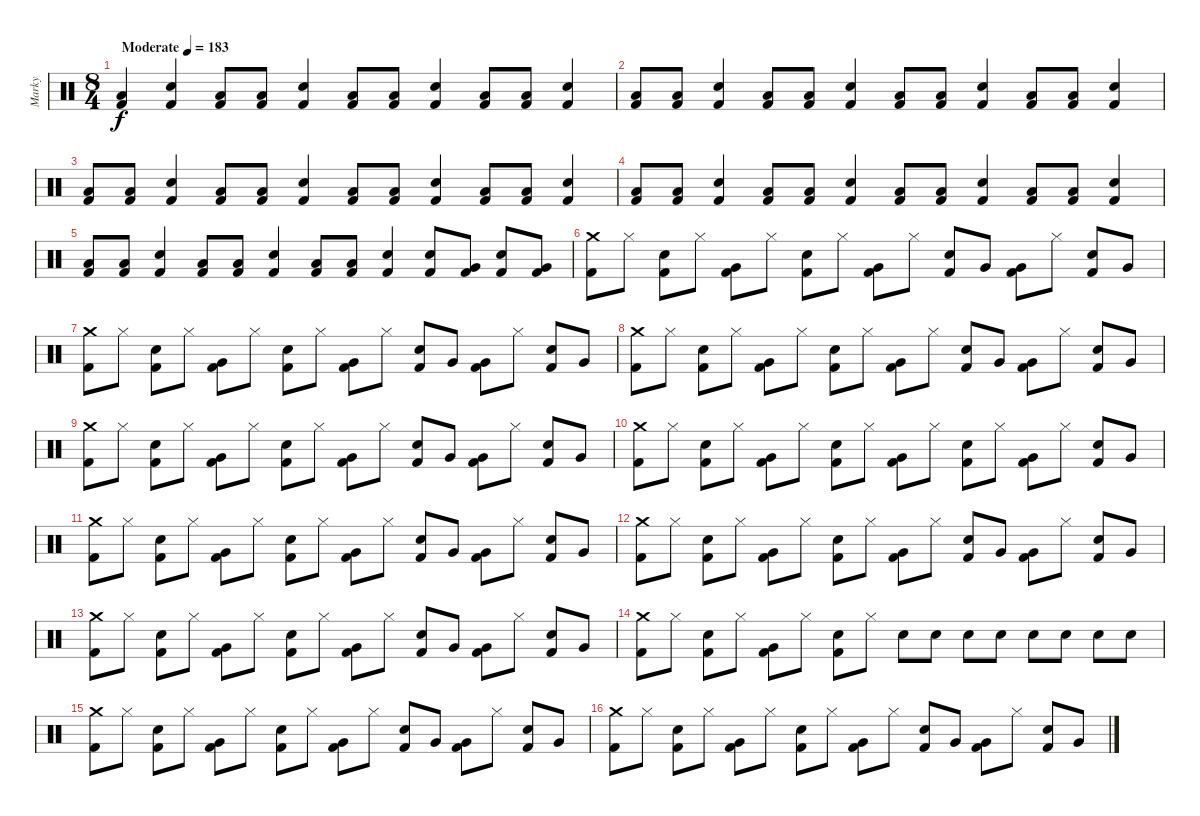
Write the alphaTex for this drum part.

\track ("Marky" "Marky") {instrument percussion}
\staff {score}
\articulation defaults
\ts (8 4)
\tempo (183 "Moderate")
\clef neutral
\ks c
("Kick (hit) 2" "Low Floor Tom (hit)").4{dy f} ("Kick (hit) 2" "Snare (hit) 2").4 ("Kick (hit) 2" "Low Floor Tom (hit)").8 ("Kick (hit) 2" "Low Floor Tom (hit)").8 ("Kick (hit) 2" "Snare (hit) 2").4 ("Kick (hit) 2" "Low Floor Tom (hit)").8 ("Kick (hit) 2" "Low Floor Tom (hit)").8 ("Kick (hit) 2" "Snare (hit) 2").4 ("Kick (hit) 2" "Low Floor Tom (hit)").8 ("Kick (hit) 2" "Low Floor Tom (hit)").8 ("Kick (hit) 2" "Snare (hit) 2").4 |
("Kick (hit) 2" "Low Floor Tom (hit)").8 ("Kick (hit) 2" "Low Floor Tom (hit)").8 ("Kick (hit) 2" "Snare (hit) 2").4 ("Kick (hit) 2" "Low Floor Tom (hit)").8 ("Kick (hit) 2" "Low Floor Tom (hit)").8 ("Kick (hit) 2" "Snare (hit) 2").4 ("Kick (hit) 2" "Low Floor Tom (hit)").8 ("Kick (hit) 2" "Low Floor Tom (hit)").8 ("Kick (hit) 2" "Snare (hit) 2").4 ("Kick (hit) 2" "Low Floor Tom (hit)").8 ("Kick (hit) 2" "Low Floor Tom (hit)").8 ("Kick (hit) 2" "Snare (hit) 2").4 |
("Kick (hit) 2" "Low Floor Tom (hit)").8 ("Kick (hit) 2" "Low Floor Tom (hit)").8 ("Kick (hit) 2" "Snare (hit) 2").4 ("Kick (hit) 2" "Low Floor Tom (hit)").8 ("Kick (hit) 2" "Low Floor Tom (hit)").8 ("Kick (hit) 2" "Snare (hit) 2").4 ("Kick (hit) 2" "Low Floor Tom (hit)").8 ("Kick (hit) 2" "Low Floor Tom (hit)").8 ("Kick (hit) 2" "Snare (hit) 2").4 ("Kick (hit) 2" "Low Floor Tom (hit)").8 ("Kick (hit) 2" "Low Floor Tom (hit)").8 ("Kick (hit) 2" "Snare (hit) 2").4 |
("Kick (hit) 2" "Low Floor Tom (hit)").8 ("Kick (hit) 2" "Low Floor Tom (hit)").8 ("Kick (hit) 2" "Snare (hit) 2").4 ("Kick (hit) 2" "Low Floor Tom (hit)").8 ("Kick (hit) 2" "Low Floor Tom (hit)").8 ("Kick (hit) 2" "Snare (hit) 2").4 ("Kick (hit) 2" "Low Floor Tom (hit)").8 ("Kick (hit) 2" "Low Floor Tom (hit)").8 ("Kick (hit) 2" "Snare (hit) 2").4 ("Kick (hit) 2" "Low Floor Tom (hit)").8 ("Kick (hit) 2" "Low Floor Tom (hit)").8 ("Kick (hit) 2" "Snare (hit) 2").4 |
("Kick (hit) 2" "Low Floor Tom (hit)").8 ("Kick (hit) 2" "Low Floor Tom (hit)").8 ("Kick (hit) 2" "Snare (hit) 2").4 ("Kick (hit) 2" "Low Floor Tom (hit)").8 ("Kick (hit) 2" "Low Floor Tom (hit)").8 ("Kick (hit) 2" "Snare (hit) 2").4 ("Kick (hit) 2" "Low Floor Tom (hit)").8 ("Kick (hit) 2" "Low Floor Tom (hit)").8 ("Kick (hit) 2" "Snare (hit) 2").4 ("Kick (hit) 2" "Snare (hit) 2").8 ("Kick (hit) 2" "Very Low Tom (hit)").8 ("Kick (hit) 2" "Snare (hit) 2").8 ("Kick (hit) 2" "Very Low Tom (hit)").8 |
("Kick (hit) 2" "Crash medium (hit)").8 "Hi-Hat (closed)".8 ("Kick (hit) 2" "Snare (hit) 2").8 "Hi-Hat (closed)".8 ("Kick (hit) 2" "Very Low Tom (hit)").8 "Hi-Hat (closed)".8 ("Kick (hit) 2" "Snare (hit) 2").8 "Hi-Hat (closed)".8 ("Kick (hit) 2" "Very Low Tom (hit)").8 "Hi-Hat (closed)".8 ("Kick (hit) 2" "Snare (hit) 2").8 "Very Low Tom (hit)".8 ("Kick (hit) 2" "Very Low Tom (hit)").8 "Hi-Hat (closed)".8 ("Kick (hit) 2" "Snare (hit) 2").8 "Very Low Tom (hit)".8 |
("Kick (hit) 2" "Crash medium (hit)").8 "Hi-Hat (closed)".8 ("Kick (hit) 2" "Snare (hit) 2").8 "Hi-Hat (closed)".8 ("Kick (hit) 2" "Very Low Tom (hit)").8 "Hi-Hat (closed)".8 ("Kick (hit) 2" "Snare (hit) 2").8 "Hi-Hat (closed)".8 ("Kick (hit) 2" "Very Low Tom (hit)").8 "Hi-Hat (closed)".8 ("Kick (hit) 2" "Snare (hit) 2").8 "Very Low Tom (hit)".8 ("Kick (hit) 2" "Very Low Tom (hit)").8 "Hi-Hat (closed)".8 ("Kick (hit) 2" "Snare (hit) 2").8 "Very Low Tom (hit)".8 |
("Kick (hit) 2" "Crash medium (hit)").8 "Hi-Hat (closed)".8 ("Kick (hit) 2" "Snare (hit) 2").8 "Hi-Hat (closed)".8 ("Kick (hit) 2" "Very Low Tom (hit)").8 "Hi-Hat (closed)".8 ("Kick (hit) 2" "Snare (hit) 2").8 "Hi-Hat (closed)".8 ("Kick (hit) 2" "Very Low Tom (hit)").8 "Hi-Hat (closed)".8 ("Kick (hit) 2" "Snare (hit) 2").8 "Very Low Tom (hit)".8 ("Kick (hit) 2" "Very Low Tom (hit)").8 "Hi-Hat (closed)".8 ("Kick (hit) 2" "Snare (hit) 2").8 "Very Low Tom (hit)".8 |
("Kick (hit) 2" "Crash medium (hit)").8 "Hi-Hat (closed)".8 ("Kick (hit) 2" "Snare (hit) 2").8 "Hi-Hat (closed)".8 ("Kick (hit) 2" "Very Low Tom (hit)").8 "Hi-Hat (closed)".8 ("Kick (hit) 2" "Snare (hit) 2").8 "Hi-Hat (closed)".8 ("Kick (hit) 2" "Very Low Tom (hit)").8 "Hi-Hat (closed)".8 ("Kick (hit) 2" "Snare (hit) 2").8 "Very Low Tom (hit)".8 ("Kick (hit) 2" "Very Low Tom (hit)").8 "Hi-Hat (closed)".8 ("Kick (hit) 2" "Snare (hit) 2").8 "Very Low Tom (hit)".8 |
("Kick (hit) 2" "Crash medium (hit)").8 "Hi-Hat (closed)".8 ("Kick (hit) 2" "Snare (hit) 2").8 "Hi-Hat (closed)".8 ("Kick (hit) 2" "Very Low Tom (hit)").8 "Hi-Hat (closed)".8 ("Kick (hit) 2" "Snare (hit) 2").8 "Hi-Hat (closed)".8 ("Kick (hit) 2" "Very Low Tom (hit)").8 "Hi-Hat (closed)".8 ("Kick (hit) 2" "Snare (hit) 2").8 "Hi-Hat (closed)".8 ("Kick (hit) 2" "Very Low Tom (hit)").8 "Hi-Hat (closed)".8 ("Kick (hit) 2" "Snare (hit) 2").8 "Very Low Tom (hit)".8 |
("Kick (hit) 2" "Crash medium (hit)").8 "Hi-Hat (closed)".8 ("Kick (hit) 2" "Snare (hit) 2").8 "Hi-Hat (closed)".8 ("Kick (hit) 2" "Very Low Tom (hit)").8 "Hi-Hat (closed)".8 ("Kick (hit) 2" "Snare (hit) 2").8 "Hi-Hat (closed)".8 ("Kick (hit) 2" "Very Low Tom (hit)").8 "Hi-Hat (closed)".8 ("Kick (hit) 2" "Snare (hit) 2").8 "Very Low Tom (hit)".8 ("Kick (hit) 2" "Very Low Tom (hit)").8 "Hi-Hat (closed)".8 ("Kick (hit) 2" "Snare (hit) 2").8 "Very Low Tom (hit)".8 |
("Kick (hit) 2" "Crash medium (hit)").8 "Hi-Hat (closed)".8 ("Kick (hit) 2" "Snare (hit) 2").8 "Hi-Hat (closed)".8 ("Kick (hit) 2" "Very Low Tom (hit)").8 "Hi-Hat (closed)".8 ("Kick (hit) 2" "Snare (hit) 2").8 "Hi-Hat (closed)".8 ("Kick (hit) 2" "Very Low Tom (hit)").8 "Hi-Hat (closed)".8 ("Kick (hit) 2" "Snare (hit) 2").8 "Very Low Tom (hit)".8 ("Kick (hit) 2" "Very Low Tom (hit)").8 "Hi-Hat (closed)".8 ("Kick (hit) 2" "Snare (hit) 2").8 "Very Low Tom (hit)".8 |
("Kick (hit) 2" "Crash medium (hit)").8 "Hi-Hat (closed)".8 ("Kick (hit) 2" "Snare (hit) 2").8 "Hi-Hat (closed)".8 ("Kick (hit) 2" "Very Low Tom (hit)").8 "Hi-Hat (closed)".8 ("Kick (hit) 2" "Snare (hit) 2").8 "Hi-Hat (closed)".8 ("Kick (hit) 2" "Very Low Tom (hit)").8 "Hi-Hat (closed)".8 ("Kick (hit) 2" "Snare (hit) 2").8 "Very Low Tom (hit)".8 ("Kick (hit) 2" "Very Low Tom (hit)").8 "Hi-Hat (closed)".8 ("Kick (hit) 2" "Snare (hit) 2").8 "Very Low Tom (hit)".8 |
("Kick (hit) 2" "Crash medium (hit)").8 "Hi-Hat (closed)".8 ("Kick (hit) 2" "Snare (hit) 2").8 "Hi-Hat (closed)".8 ("Kick (hit) 2" "Very Low Tom (hit)").8 "Hi-Hat (closed)".8 ("Kick (hit) 2" "Snare (hit) 2").8 "Hi-Hat (closed)".8 "Snare (hit) 2".8 "Snare (hit) 2".8 "Snare (hit) 2".8 "Snare (hit) 2".8 "Snare (hit) 2".8 "Snare (hit) 2".8 "Snare (hit) 2".8 "Snare (hit) 2".8 |
("Kick (hit) 2" "Crash medium (hit)").8 "Hi-Hat (closed)".8 ("Kick (hit) 2" "Snare (hit) 2").8 "Hi-Hat (closed)".8 ("Kick (hit) 2" "Very Low Tom (hit)").8 "Hi-Hat (closed)".8 ("Kick (hit) 2" "Snare (hit) 2").8 "Hi-Hat (closed)".8 ("Kick (hit) 2" "Very Low Tom (hit)").8 "Hi-Hat (closed)".8 ("Kick (hit) 2" "Snare (hit) 2").8 "Very Low Tom (hit)".8 ("Kick (hit) 2" "Very Low Tom (hit)").8 "Hi-Hat (closed)".8 ("Kick (hit) 2" "Snare (hit) 2").8 "Very Low Tom (hit)".8 |
("Kick (hit) 2" "Crash medium (hit)").8 "Hi-Hat (closed)".8 ("Kick (hit) 2" "Snare (hit) 2").8 "Hi-Hat (closed)".8 ("Kick (hit) 2" "Very Low Tom (hit)").8 "Hi-Hat (closed)".8 ("Kick (hit) 2" "Snare (hit) 2").8 "Hi-Hat (closed)".8 ("Kick (hit) 2" "Very Low Tom (hit)").8 "Hi-Hat (closed)".8 ("Kick (hit) 2" "Snare (hit) 2").8 "Very Low Tom (hit)".8 ("Kick (hit) 2" "Very Low Tom (hit)").8 "Hi-Hat (closed)".8 ("Kick (hit) 2" "Snare (hit) 2").8 "Very Low Tom (hit)".8
